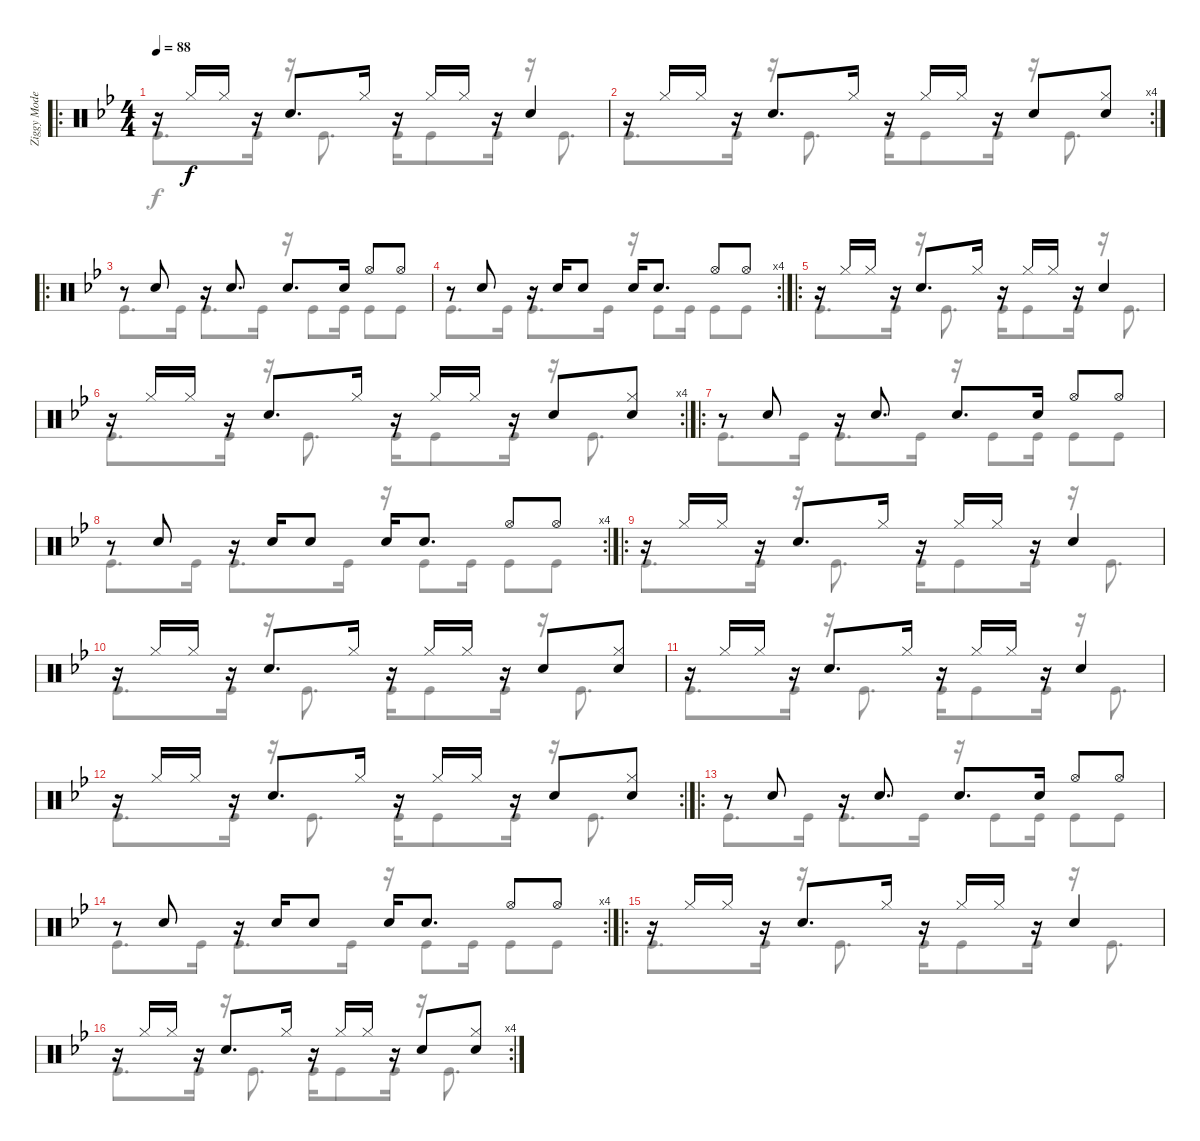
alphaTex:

\track ("Ziggy Modeliste" "Ziggy Mode") {instrument percussion}
\staff {score}
\articulation defaults
\voice
\ro
\ts (4 4)
\tempo 88
\clef neutral
\ks bb
r.16{dy f} "Hi-Hat (closed)".16 "Hi-Hat (closed)".16 r.16 "Snare (hit) 2".8{d} "Hi-Hat (closed)".16 r.16 "Hi-Hat (closed)".16 "Hi-Hat (closed)".16 r.16 "Snare (hit) 2".4 |
\rc 4
r.16 "Hi-Hat (closed)".16 "Hi-Hat (closed)".16 r.16 "Snare (hit) 2".8{d} "Hi-Hat (closed)".16 r.16 "Hi-Hat (closed)".16 "Hi-Hat (closed)".16 r.16 "Snare (hit) 2".8 ("Hi-Hat (closed)" "Snare (hit) 2").8 |
\ro
r.8 "Snare (hit) 2".8 r.16 "Snare (hit) 2".8{d} "Snare (hit) 2".8{d} "Snare (hit) 2".16 "Hi-Hat (open)".8 "Hi-Hat (open)".8 |
\rc 4
r.8 "Snare (hit) 2".8 r.16 "Snare (hit) 2".16 "Snare (hit) 2".8 "Snare (hit) 2".16 "Snare (hit) 2".8{d} "Hi-Hat (open)".8 "Hi-Hat (open)".8 |
\ro
r.16 "Hi-Hat (closed)".16 "Hi-Hat (closed)".16 r.16 "Snare (hit) 2".8{d} "Hi-Hat (closed)".16 r.16 "Hi-Hat (closed)".16 "Hi-Hat (closed)".16 r.16 "Snare (hit) 2".4 |
\rc 4
r.16 "Hi-Hat (closed)".16 "Hi-Hat (closed)".16 r.16 "Snare (hit) 2".8{d} "Hi-Hat (closed)".16 r.16 "Hi-Hat (closed)".16 "Hi-Hat (closed)".16 r.16 "Snare (hit) 2".8 ("Hi-Hat (closed)" "Snare (hit) 2").8 |
\ro
r.8 "Snare (hit) 2".8 r.16 "Snare (hit) 2".8{d} "Snare (hit) 2".8{d} "Snare (hit) 2".16 "Hi-Hat (open)".8 "Hi-Hat (open)".8 |
\rc 4
r.8 "Snare (hit) 2".8 r.16 "Snare (hit) 2".16 "Snare (hit) 2".8 "Snare (hit) 2".16 "Snare (hit) 2".8{d} "Hi-Hat (open)".8 "Hi-Hat (open)".8 |
\ro
r.16 "Hi-Hat (closed)".16 "Hi-Hat (closed)".16 r.16 "Snare (hit) 2".8{d} "Hi-Hat (closed)".16 r.16 "Hi-Hat (closed)".16 "Hi-Hat (closed)".16 r.16 "Snare (hit) 2".4 |
r.16 "Hi-Hat (closed)".16 "Hi-Hat (closed)".16 r.16 "Snare (hit) 2".8{d} "Hi-Hat (closed)".16 r.16 "Hi-Hat (closed)".16 "Hi-Hat (closed)".16 r.16 "Snare (hit) 2".8 ("Hi-Hat (closed)" "Snare (hit) 2").8 |
r.16 "Hi-Hat (closed)".16 "Hi-Hat (closed)".16 r.16 "Snare (hit) 2".8{d} "Hi-Hat (closed)".16 r.16 "Hi-Hat (closed)".16 "Hi-Hat (closed)".16 r.16 "Snare (hit) 2".4 |
\rc 2
r.16 "Hi-Hat (closed)".16 "Hi-Hat (closed)".16 r.16 "Snare (hit) 2".8{d} "Hi-Hat (closed)".16 r.16 "Hi-Hat (closed)".16 "Hi-Hat (closed)".16 r.16 "Snare (hit) 2".8 ("Hi-Hat (closed)" "Snare (hit) 2").8 |
\ro
r.8 "Snare (hit) 2".8 r.16 "Snare (hit) 2".8{d} "Snare (hit) 2".8{d} "Snare (hit) 2".16 "Hi-Hat (open)".8 "Hi-Hat (open)".8 |
\rc 4
r.8 "Snare (hit) 2".8 r.16 "Snare (hit) 2".16 "Snare (hit) 2".8 "Snare (hit) 2".16 "Snare (hit) 2".8{d} "Hi-Hat (open)".8 "Hi-Hat (open)".8 |
\ro
r.16 "Hi-Hat (closed)".16 "Hi-Hat (closed)".16 r.16 "Snare (hit) 2".8{d} "Hi-Hat (closed)".16 r.16 "Hi-Hat (closed)".16 "Hi-Hat (closed)".16 r.16 "Snare (hit) 2".4 |
\rc 4
r.16 "Hi-Hat (closed)".16 "Hi-Hat (closed)".16 r.16 "Snare (hit) 2".8{d} "Hi-Hat (closed)".16 r.16 "Hi-Hat (closed)".16 "Hi-Hat (closed)".16 r.16 "Snare (hit) 2".8 ("Hi-Hat (closed)" "Snare (hit) 2").8
\voice
\clef neutral
\ottava regular
\simile none
\ks bb "Kick (hit)".8{d dy f} "Kick (hit)".16
r.16 "Kick (hit)".8{d} "Kick (hit)".16 "Kick (hit)".8 "Kick (hit)".16 r.16 "Kick (hit)".8{d} |
"Kick (hit)".8{d} "Kick (hit)".16 r.16 "Kick (hit)".8{d} "Kick (hit)".16 "Kick (hit)".8 "Kick (hit)".16 r.16 "Kick (hit)".8{d} |
"Kick (hit)".8{d} "Kick (hit)".16 "Kick (hit)".8{d} "Kick (hit)".16 r.16 "Kick (hit)".8 "Kick (hit)".16 "Kick (hit)".8 "Kick (hit)".8 |
"Kick (hit)".8{d} "Kick (hit)".16 "Kick (hit)".8{d} "Kick (hit)".16 r.16 "Kick (hit)".8 "Kick (hit)".16 "Kick (hit)".8 "Kick (hit)".8 |
"Kick (hit)".8{d} "Kick (hit)".16 r.16 "Kick (hit)".8{d} "Kick (hit)".16 "Kick (hit)".8 "Kick (hit)".16 r.16 "Kick (hit)".8{d} |
"Kick (hit)".8{d} "Kick (hit)".16 r.16 "Kick (hit)".8{d} "Kick (hit)".16 "Kick (hit)".8 "Kick (hit)".16 r.16 "Kick (hit)".8{d} |
"Kick (hit)".8{d} "Kick (hit)".16 "Kick (hit)".8{d} "Kick (hit)".16 r.16 "Kick (hit)".8 "Kick (hit)".16 "Kick (hit)".8 "Kick (hit)".8 |
"Kick (hit)".8{d} "Kick (hit)".16 "Kick (hit)".8{d} "Kick (hit)".16 r.16 "Kick (hit)".8 "Kick (hit)".16 "Kick (hit)".8 "Kick (hit)".8 |
"Kick (hit)".8{d} "Kick (hit)".16 r.16 "Kick (hit)".8{d} "Kick (hit)".16 "Kick (hit)".8 "Kick (hit)".16 r.16 "Kick (hit)".8{d} |
"Kick (hit)".8{d} "Kick (hit)".16 r.16 "Kick (hit)".8{d} "Kick (hit)".16 "Kick (hit)".8 "Kick (hit)".16 r.16 "Kick (hit)".8{d} |
"Kick (hit)".8{d} "Kick (hit)".16 r.16 "Kick (hit)".8{d} "Kick (hit)".16 "Kick (hit)".8 "Kick (hit)".16 r.16 "Kick (hit)".8{d} |
"Kick (hit)".8{d} "Kick (hit)".16 r.16 "Kick (hit)".8{d} "Kick (hit)".16 "Kick (hit)".8 "Kick (hit)".16 r.16 "Kick (hit)".8{d} |
"Kick (hit)".8{d} "Kick (hit)".16 "Kick (hit)".8{d} "Kick (hit)".16 r.16 "Kick (hit)".8 "Kick (hit)".16 "Kick (hit)".8 "Kick (hit)".8 |
"Kick (hit)".8{d} "Kick (hit)".16 "Kick (hit)".8{d} "Kick (hit)".16 r.16 "Kick (hit)".8 "Kick (hit)".16 "Kick (hit)".8 "Kick (hit)".8 |
"Kick (hit)".8{d} "Kick (hit)".16 r.16 "Kick (hit)".8{d} "Kick (hit)".16 "Kick (hit)".8 "Kick (hit)".16 r.16 "Kick (hit)".8{d} |
"Kick (hit)".8{d} "Kick (hit)".16 r.16 "Kick (hit)".8{d} "Kick (hit)".16 "Kick (hit)".8 "Kick (hit)".16 r.16 "Kick (hit)".8{d}
